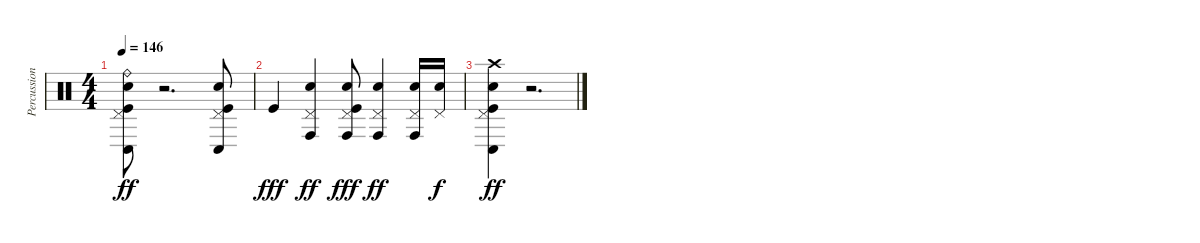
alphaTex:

\track ("Percussion" "Percussion") {instrument percussion}
\staff {score}
\articulation defaults
\ts (4 4)
\tempo 146
\clef neutral
\ks c
("Ride (bell)" "Pedal Hi-Hat (hit)" "Conga low (hit)" "Electric Snare (hit)" "Kick (hit)").8{dy ff} r.2{d} ("Pedal Hi-Hat (hit)" "Conga low (hit)" "Electric Snare (hit)" "Kick (hit)").8 |
"Kick (hit)".4{dy fff} ("Pedal Hi-Hat (hit)" "Conga high (hit)" "Electric Snare (hit)").4{dy ff} ("Pedal Hi-Hat (hit)" "Conga high (hit)" "Electric Snare (hit)" "Kick (hit)").8{dy fff} ("Pedal Hi-Hat (hit)" "Conga high (hit)" "Electric Snare (hit)").4{dy ff} ("Pedal Hi-Hat (hit)" "Conga high (hit)" "Electric Snare (hit)").16 ("Pedal Hi-Hat (hit)" "Electric Snare (hit)").16{dy f} |
("Crash high (hit)" "Pedal Hi-Hat (hit)" "Conga low (hit)" "Electric Snare (hit)" "Kick (hit)").4{dy ff} r.2{d}
